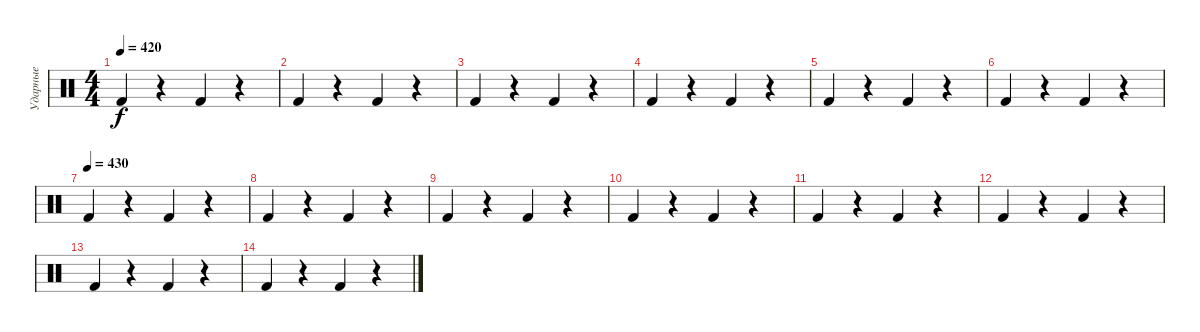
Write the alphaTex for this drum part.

\track ("Ударные" "Ударные") {instrument percussion}
\staff {score}
\articulation defaults
\ts (4 4)
\tempo 420
\clef neutral
\ks c "Kick (hit) 2".4{dy f}
r.4 "Kick (hit) 2".4 r.4 |
"Kick (hit) 2".4 r.4 "Kick (hit) 2".4 r.4 |
"Kick (hit) 2".4 r.4 "Kick (hit) 2".4 r.4 |
"Kick (hit) 2".4 r.4 "Kick (hit) 2".4 r.4 |
"Kick (hit) 2".4 r.4 "Kick (hit) 2".4 r.4 |
"Kick (hit) 2".4 r.4 "Kick (hit) 2".4 r.4 |
\tempo (430)
"Kick (hit) 2".4 r.4 "Kick (hit) 2".4 r.4 |
"Kick (hit) 2".4 r.4 "Kick (hit) 2".4 r.4 |
"Kick (hit) 2".4 r.4 "Kick (hit) 2".4 r.4 |
"Kick (hit) 2".4 r.4 "Kick (hit) 2".4 r.4 |
"Kick (hit) 2".4 r.4 "Kick (hit) 2".4 r.4 |
"Kick (hit) 2".4 r.4 "Kick (hit) 2".4 r.4 |
"Kick (hit) 2".4 r.4 "Kick (hit) 2".4 r.4 |
"Kick (hit) 2".4 r.4 "Kick (hit) 2".4 r.4
